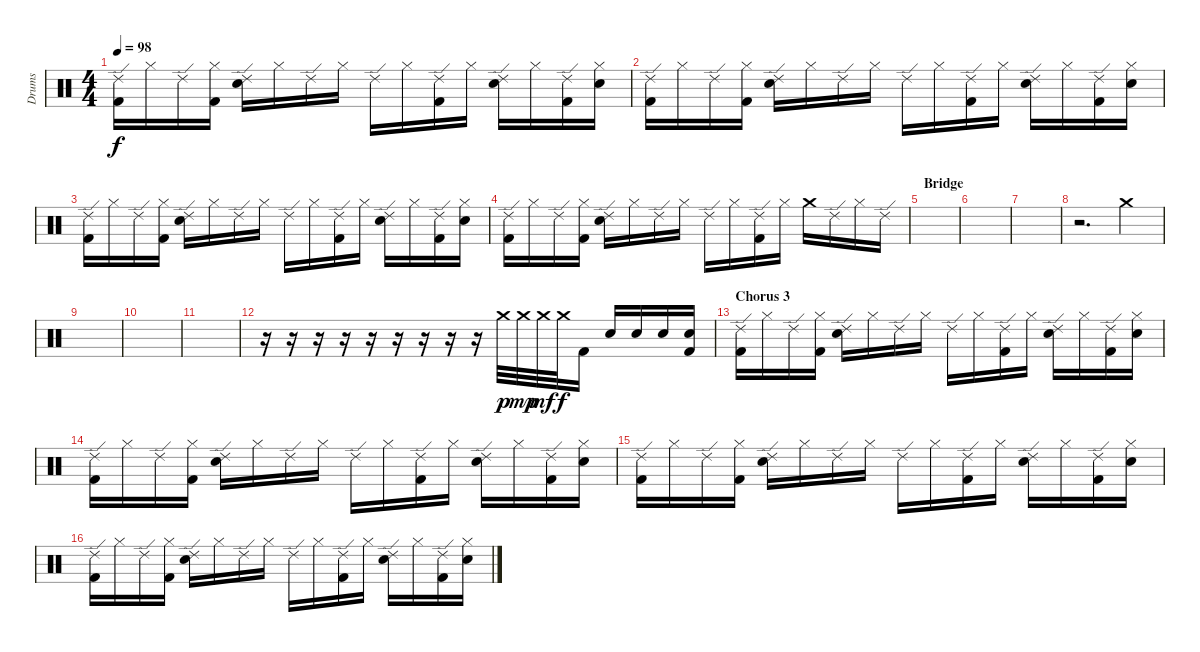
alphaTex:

\track ("Drums" "Drums") {instrument percussion}
\staff {score}
\articulation defaults
\ts (4 4)
\tempo 98
\clef neutral
\ks c
("Ride (edge) 2" "Kick (hit) 2").16{dy f} "Hi-Hat (closed)".16 "Ride (edge) 2".16 ("Hi-Hat (closed)" "Kick (hit) 2").16 ("Ride (edge) 2" "Electric Snare (hit)").16 "Hi-Hat (closed)".16 "Ride (edge) 2".16 "Hi-Hat (closed)".16 "Ride (edge) 2".16 "Hi-Hat (closed)".16 ("Ride (edge) 2" "Kick (hit) 2").16 "Hi-Hat (closed)".16 ("Ride (edge) 2" "Electric Snare (hit)").16 "Hi-Hat (closed)".16 ("Ride (edge) 2" "Kick (hit) 2").16 ("Hi-Hat (closed)" "Electric Snare (hit)").16 |
("Ride (edge) 2" "Kick (hit) 2").16 "Hi-Hat (closed)".16 "Ride (edge) 2".16 ("Hi-Hat (closed)" "Kick (hit) 2").16 ("Ride (edge) 2" "Electric Snare (hit)").16 "Hi-Hat (closed)".16 "Ride (edge) 2".16 "Hi-Hat (closed)".16 "Ride (edge) 2".16 "Hi-Hat (closed)".16 ("Ride (edge) 2" "Kick (hit) 2").16 "Hi-Hat (closed)".16 ("Ride (edge) 2" "Electric Snare (hit)").16 "Hi-Hat (closed)".16 ("Ride (edge) 2" "Kick (hit) 2").16 ("Hi-Hat (closed)" "Electric Snare (hit)").16 |
("Ride (edge) 2" "Kick (hit) 2").16 "Hi-Hat (closed)".16 "Ride (edge) 2".16 ("Hi-Hat (closed)" "Kick (hit) 2").16 ("Ride (edge) 2" "Electric Snare (hit)").16 "Hi-Hat (closed)".16 "Ride (edge) 2".16 "Hi-Hat (closed)".16 "Ride (edge) 2".16 "Hi-Hat (closed)".16 ("Ride (edge) 2" "Kick (hit) 2").16 "Hi-Hat (closed)".16 ("Ride (edge) 2" "Electric Snare (hit)").16 "Hi-Hat (closed)".16 ("Ride (edge) 2" "Kick (hit) 2").16 ("Hi-Hat (closed)" "Electric Snare (hit)").16 |
("Ride (edge) 2" "Kick (hit) 2").16 "Hi-Hat (closed)".16 "Ride (edge) 2".16 ("Hi-Hat (closed)" "Kick (hit) 2").16 ("Ride (edge) 2" "Electric Snare (hit)").16 "Hi-Hat (closed)".16 "Ride (edge) 2".16 "Hi-Hat (closed)".16 "Ride (edge) 2".16 "Hi-Hat (closed)".16 ("Ride (edge) 2" "Kick (hit) 2").16 "Hi-Hat (closed)".16 "Crash medium (hit)".16 "Ride (edge) 2".16 "Hi-Hat (closed)".16 "Ride (edge) 2".16 |
\section ("" "Bridge")
|
|
|
r.2{d} "Crash medium (hit)".4 |
|
|
|
r.16 r.16 r.16 r.16 r.16 r.16 r.16 r.16 r.16 "Crash medium (hit)".32{dy p} "Crash medium (hit)".32{dy mp} "Crash medium (hit)".32{dy mf} "Crash medium (hit)".32{dy f} "Kick (hit) 2".16 "Electric Snare (hit)".16 "Electric Snare (hit)".16 "Electric Snare (hit)".16 ("Electric Snare (hit)" "Kick (hit) 2").16 |
\section ("" "Chorus 3")
("Ride (edge) 2" "Kick (hit) 2").16 "Hi-Hat (closed)".16 "Ride (edge) 2".16 ("Hi-Hat (closed)" "Kick (hit) 2").16 ("Ride (edge) 2" "Electric Snare (hit)").16 "Hi-Hat (closed)".16 "Ride (edge) 2".16 "Hi-Hat (closed)".16 "Ride (edge) 2".16 "Hi-Hat (closed)".16 ("Ride (edge) 2" "Kick (hit) 2").16 "Hi-Hat (closed)".16 ("Ride (edge) 2" "Electric Snare (hit)").16 "Hi-Hat (closed)".16 ("Ride (edge) 2" "Kick (hit) 2").16 ("Hi-Hat (closed)" "Electric Snare (hit)").16 |
("Ride (edge) 2" "Kick (hit) 2").16 "Hi-Hat (closed)".16 "Ride (edge) 2".16 ("Hi-Hat (closed)" "Kick (hit) 2").16 ("Ride (edge) 2" "Electric Snare (hit)").16 "Hi-Hat (closed)".16 "Ride (edge) 2".16 "Hi-Hat (closed)".16 "Ride (edge) 2".16 "Hi-Hat (closed)".16 ("Ride (edge) 2" "Kick (hit) 2").16 "Hi-Hat (closed)".16 ("Ride (edge) 2" "Electric Snare (hit)").16 "Hi-Hat (closed)".16 ("Ride (edge) 2" "Kick (hit) 2").16 ("Hi-Hat (closed)" "Electric Snare (hit)").16 |
("Ride (edge) 2" "Kick (hit) 2").16 "Hi-Hat (closed)".16 "Ride (edge) 2".16 ("Hi-Hat (closed)" "Kick (hit) 2").16 ("Ride (edge) 2" "Electric Snare (hit)").16 "Hi-Hat (closed)".16 "Ride (edge) 2".16 "Hi-Hat (closed)".16 "Ride (edge) 2".16 "Hi-Hat (closed)".16 ("Ride (edge) 2" "Kick (hit) 2").16 "Hi-Hat (closed)".16 ("Ride (edge) 2" "Electric Snare (hit)").16 "Hi-Hat (closed)".16 ("Ride (edge) 2" "Kick (hit) 2").16 ("Hi-Hat (closed)" "Electric Snare (hit)").16 |
("Ride (edge) 2" "Kick (hit) 2").16 "Hi-Hat (closed)".16 "Ride (edge) 2".16 ("Hi-Hat (closed)" "Kick (hit) 2").16 ("Ride (edge) 2" "Electric Snare (hit)").16 "Hi-Hat (closed)".16 "Ride (edge) 2".16 "Hi-Hat (closed)".16 "Ride (edge) 2".16 "Hi-Hat (closed)".16 ("Ride (edge) 2" "Kick (hit) 2").16 "Hi-Hat (closed)".16 ("Ride (edge) 2" "Electric Snare (hit)").16 "Hi-Hat (closed)".16 ("Ride (edge) 2" "Kick (hit) 2").16 ("Hi-Hat (closed)" "Electric Snare (hit)").16
